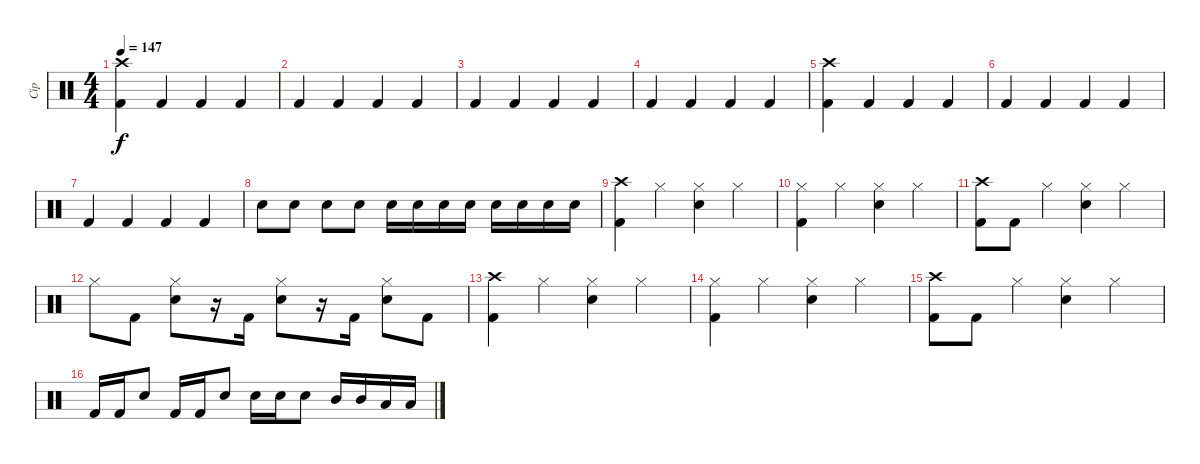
\track ("Cip" "Cip") {instrument percussion}
\staff {score}
\articulation defaults
\ts (4 4)
\tempo 147
\clef neutral
\ks c
("Crash high (hit)" "Kick (hit) 2").4{dy f} "Kick (hit) 2".4 "Kick (hit) 2".4 "Kick (hit) 2".4 |
"Kick (hit) 2".4 "Kick (hit) 2".4 "Kick (hit) 2".4 "Kick (hit) 2".4 |
"Kick (hit) 2".4 "Kick (hit) 2".4 "Kick (hit) 2".4 "Kick (hit) 2".4 |
"Kick (hit) 2".4 "Kick (hit) 2".4 "Kick (hit) 2".4 "Kick (hit) 2".4 |
("Crash high (hit)" "Kick (hit) 2").4 "Kick (hit) 2".4 "Kick (hit) 2".4 "Kick (hit) 2".4 |
"Kick (hit) 2".4 "Kick (hit) 2".4 "Kick (hit) 2".4 "Kick (hit) 2".4 |
"Kick (hit) 2".4 "Kick (hit) 2".4 "Kick (hit) 2".4 "Kick (hit) 2".4 |
"Electric Snare (hit)".8 "Electric Snare (hit)".8 "Electric Snare (hit)".8 "Electric Snare (hit)".8 "Electric Snare (hit)".16 "Electric Snare (hit)".16 "Electric Snare (hit)".16 "Electric Snare (hit)".16 "Electric Snare (hit)".16 "Electric Snare (hit)".16 "Electric Snare (hit)".16 "Electric Snare (hit)".16 |
("Crash high (hit)" "Kick (hit) 2").4 "Hi-Hat (closed)".4 ("Hi-Hat (closed)" "Electric Snare (hit)").4 "Hi-Hat (closed)".4 |
("Hi-Hat (closed)" "Kick (hit) 2").4 "Hi-Hat (closed)".4 ("Hi-Hat (closed)" "Electric Snare (hit)").4 "Hi-Hat (closed)".4 |
("Crash high (hit)" "Kick (hit) 2").8 "Kick (hit) 2".8 "Hi-Hat (closed)".4 ("Hi-Hat (closed)" "Electric Snare (hit)").4 "Hi-Hat (closed)".4 |
"Hi-Hat (closed)".8 "Kick (hit) 2".8 ("Hi-Hat (closed)" "Electric Snare (hit)").8 r.16 "Kick (hit) 2".16 ("Hi-Hat (closed)" "Electric Snare (hit)").8 r.16 "Kick (hit) 2".16 ("Hi-Hat (closed)" "Electric Snare (hit)").8 "Kick (hit) 2".8 |
("Crash high (hit)" "Kick (hit) 2").4 "Hi-Hat (closed)".4 ("Hi-Hat (closed)" "Electric Snare (hit)").4 "Hi-Hat (closed)".4 |
("Hi-Hat (closed)" "Kick (hit) 2").4 "Hi-Hat (closed)".4 ("Hi-Hat (closed)" "Electric Snare (hit)").4 "Hi-Hat (closed)".4 |
("Crash high (hit)" "Kick (hit) 2").8 "Kick (hit) 2".8 "Hi-Hat (closed)".4 ("Hi-Hat (closed)" "Electric Snare (hit)").4 "Hi-Hat (closed)".4 |
"Kick (hit) 2".16 "Kick (hit) 2".16 "Electric Snare (hit)".8 "Kick (hit) 2".16 "Kick (hit) 2".16 "Electric Snare (hit)".8 "Electric Snare (hit)".16 "Electric Snare (hit)".16 "Electric Snare (hit)".8 "Mid Tom (hit)".16 "Mid Tom (hit)".16 "Low Tom (hit)".16 "Low Tom (hit)".16
